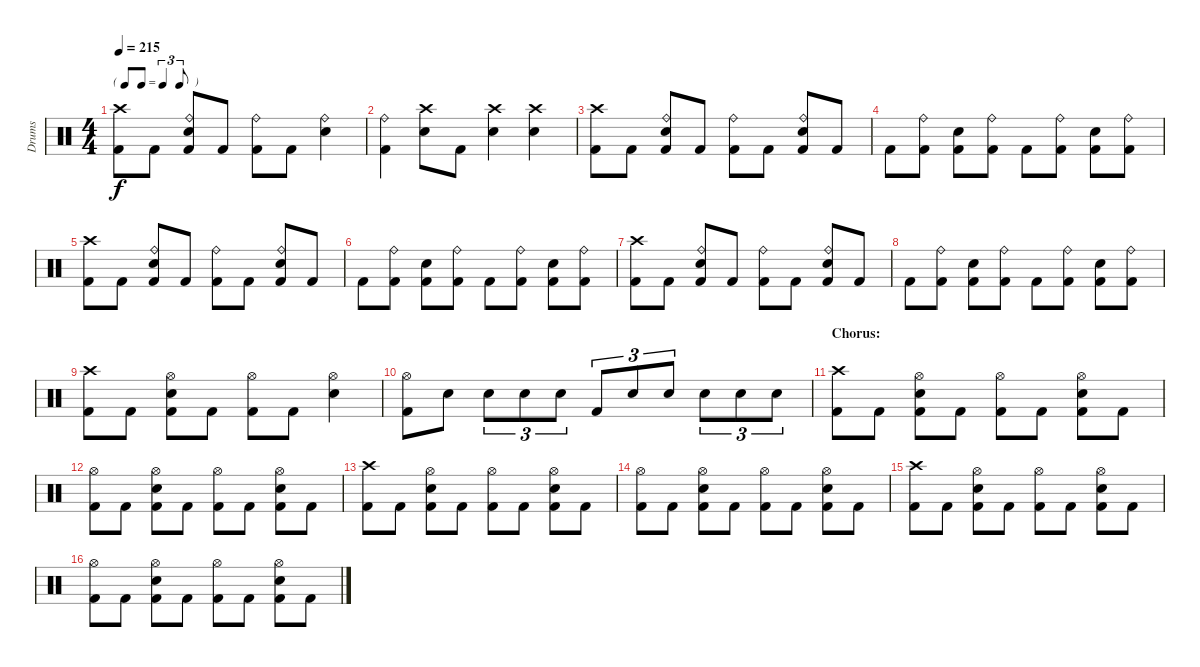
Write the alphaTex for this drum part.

\track ("Drums" "Drums") {instrument percussion}
\staff {score}
\articulation defaults
\ts (4 4)
\tf triplet8th
\tempo 215
\clef neutral
\ks c
("Crash high (hit)" "Kick (hit) 2").8{dy f} "Kick (hit) 2".8 ("Ride (bell)" "Electric Snare (hit)" "Kick (hit) 2").8 "Kick (hit) 2".8 ("Ride (bell)" "Kick (hit) 2").8 "Kick (hit) 2".8 ("Ride (bell)" "Electric Snare (hit)").4 |
("Ride (bell)" "Kick (hit) 2").4 ("Crash high (hit)" "Electric Snare (hit)").8 "Kick (hit) 2".8 ("Crash high (hit)" "Electric Snare (hit)").4 ("Crash high (hit)" "Electric Snare (hit)").4 |
("Crash high (hit)" "Kick (hit) 2").8 "Kick (hit) 2".8 ("Ride (bell)" "Electric Snare (hit)" "Kick (hit) 2").8 "Kick (hit) 2".8 ("Ride (bell)" "Kick (hit) 2").8 "Kick (hit) 2".8 ("Ride (bell)" "Electric Snare (hit)" "Kick (hit) 2").8 "Kick (hit) 2".8 |
"Kick (hit) 2".8 ("Ride (bell)" "Kick (hit) 2").8 ("Electric Snare (hit)" "Kick (hit) 2").8 ("Ride (bell)" "Kick (hit) 2").8 "Kick (hit) 2".8 ("Ride (bell)" "Kick (hit) 2").8 ("Electric Snare (hit)" "Kick (hit) 2").8 ("Ride (bell)" "Kick (hit) 2").8 |
("Crash high (hit)" "Kick (hit) 2").8 "Kick (hit) 2".8 ("Ride (bell)" "Electric Snare (hit)" "Kick (hit) 2").8 "Kick (hit) 2".8 ("Ride (bell)" "Kick (hit) 2").8 "Kick (hit) 2".8 ("Ride (bell)" "Electric Snare (hit)" "Kick (hit) 2").8 "Kick (hit) 2".8 |
"Kick (hit) 2".8 ("Ride (bell)" "Kick (hit) 2").8 ("Electric Snare (hit)" "Kick (hit) 2").8 ("Ride (bell)" "Kick (hit) 2").8 "Kick (hit) 2".8 ("Ride (bell)" "Kick (hit) 2").8 ("Electric Snare (hit)" "Kick (hit) 2").8 ("Ride (bell)" "Kick (hit) 2").8 |
("Crash high (hit)" "Kick (hit) 2").8 "Kick (hit) 2".8 ("Ride (bell)" "Electric Snare (hit)" "Kick (hit) 2").8 "Kick (hit) 2".8 ("Ride (bell)" "Kick (hit) 2").8 "Kick (hit) 2".8 ("Ride (bell)" "Electric Snare (hit)" "Kick (hit) 2").8 "Kick (hit) 2".8 |
"Kick (hit) 2".8 ("Ride (bell)" "Kick (hit) 2").8 ("Electric Snare (hit)" "Kick (hit) 2").8 ("Ride (bell)" "Kick (hit) 2").8 "Kick (hit) 2".8 ("Ride (bell)" "Kick (hit) 2").8 ("Electric Snare (hit)" "Kick (hit) 2").8 ("Ride (bell)" "Kick (hit) 2").8 |
("Crash high (hit)" "Kick (hit) 2").8 "Kick (hit) 2".8 ("Hi-Hat (open)" "Electric Snare (hit)" "Kick (hit) 2").8 "Kick (hit) 2".8 ("Hi-Hat (open)" "Kick (hit) 2").8 "Kick (hit) 2".8 ("Hi-Hat (open)" "Electric Snare (hit)").4 |
("Hi-Hat (open)" "Kick (hit) 2").8 "Electric Snare (hit)".8 "Electric Snare (hit)".8{tu (3 2)} "Electric Snare (hit)".8{tu (3 2)} "Electric Snare (hit)".8{tu (3 2)} "Kick (hit) 2".8{tu (3 2)} "Electric Snare (hit)".8{tu (3 2)} "Electric Snare (hit)".8{tu (3 2)} "Electric Snare (hit)".8{tu (3 2)} "Electric Snare (hit)".8{tu (3 2)} "Electric Snare (hit)".8{tu (3 2)} |
\section ("" "Chorus:")
("Crash high (hit)" "Kick (hit) 2").8 "Kick (hit) 2".8 ("Hi-Hat (open)" "Electric Snare (hit)" "Kick (hit) 2").8 "Kick (hit) 2".8 ("Hi-Hat (open)" "Kick (hit) 2").8 "Kick (hit) 2".8 ("Hi-Hat (open)" "Electric Snare (hit)" "Kick (hit) 2").8 "Kick (hit) 2".8 |
("Hi-Hat (open)" "Kick (hit) 2").8 "Kick (hit) 2".8 ("Hi-Hat (open)" "Electric Snare (hit)" "Kick (hit) 2").8 "Kick (hit) 2".8 ("Hi-Hat (open)" "Kick (hit) 2").8 "Kick (hit) 2".8 ("Hi-Hat (open)" "Electric Snare (hit)" "Kick (hit) 2").8 "Kick (hit) 2".8 |
("Crash high (hit)" "Kick (hit) 2").8 "Kick (hit) 2".8 ("Hi-Hat (open)" "Electric Snare (hit)" "Kick (hit) 2").8 "Kick (hit) 2".8 ("Hi-Hat (open)" "Kick (hit) 2").8 "Kick (hit) 2".8 ("Hi-Hat (open)" "Electric Snare (hit)" "Kick (hit) 2").8 "Kick (hit) 2".8 |
("Hi-Hat (open)" "Kick (hit) 2").8 "Kick (hit) 2".8 ("Hi-Hat (open)" "Electric Snare (hit)" "Kick (hit) 2").8 "Kick (hit) 2".8 ("Hi-Hat (open)" "Kick (hit) 2").8 "Kick (hit) 2".8 ("Hi-Hat (open)" "Electric Snare (hit)" "Kick (hit) 2").8 "Kick (hit) 2".8 |
("Crash high (hit)" "Kick (hit) 2").8 "Kick (hit) 2".8 ("Hi-Hat (open)" "Electric Snare (hit)" "Kick (hit) 2").8 "Kick (hit) 2".8 ("Hi-Hat (open)" "Kick (hit) 2").8 "Kick (hit) 2".8 ("Hi-Hat (open)" "Electric Snare (hit)" "Kick (hit) 2").8 "Kick (hit) 2".8 |
("Hi-Hat (open)" "Kick (hit) 2").8 "Kick (hit) 2".8 ("Hi-Hat (open)" "Electric Snare (hit)" "Kick (hit) 2").8 "Kick (hit) 2".8 ("Hi-Hat (open)" "Kick (hit) 2").8 "Kick (hit) 2".8 ("Hi-Hat (open)" "Electric Snare (hit)" "Kick (hit) 2").8 "Kick (hit) 2".8
